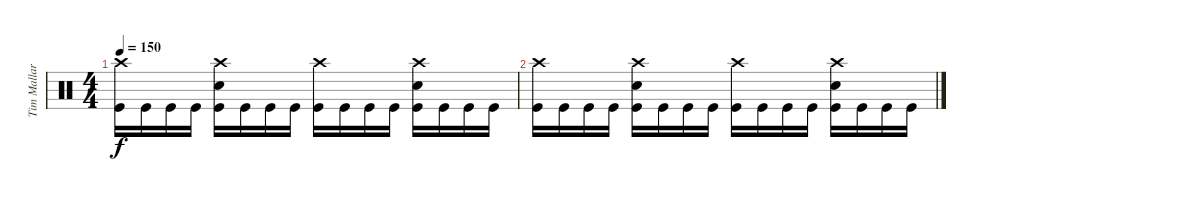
\track ("Tim Mallare-Drums" "Tim Mallar") {instrument percussion}
\staff {score}
\articulation defaults
\ts (4 4)
\tempo 150
\clef neutral
\ks c
("Crash high (hit)" "Kick (hit)").16{dy f} "Kick (hit)".16 "Kick (hit)".16 "Kick (hit)".16 ("Crash high (hit)" "Electric Snare (hit)" "Kick (hit)").16 "Kick (hit)".16 "Kick (hit)".16 "Kick (hit)".16 ("Crash high (hit)" "Kick (hit)").16 "Kick (hit)".16 "Kick (hit)".16 "Kick (hit)".16 ("Crash high (hit)" "Electric Snare (hit)" "Kick (hit)").16 "Kick (hit)".16 "Kick (hit)".16 "Kick (hit)".16 |
("Crash high (hit)" "Kick (hit)").16 "Kick (hit)".16 "Kick (hit)".16 "Kick (hit)".16 ("Crash high (hit)" "Electric Snare (hit)" "Kick (hit)").16 "Kick (hit)".16 "Kick (hit)".16 "Kick (hit)".16 ("Crash high (hit)" "Kick (hit)").16 "Kick (hit)".16 "Kick (hit)".16 "Kick (hit)".16 ("Crash high (hit)" "Electric Snare (hit)" "Kick (hit)").16 "Kick (hit)".16 "Kick (hit)".16 "Kick (hit)".16
